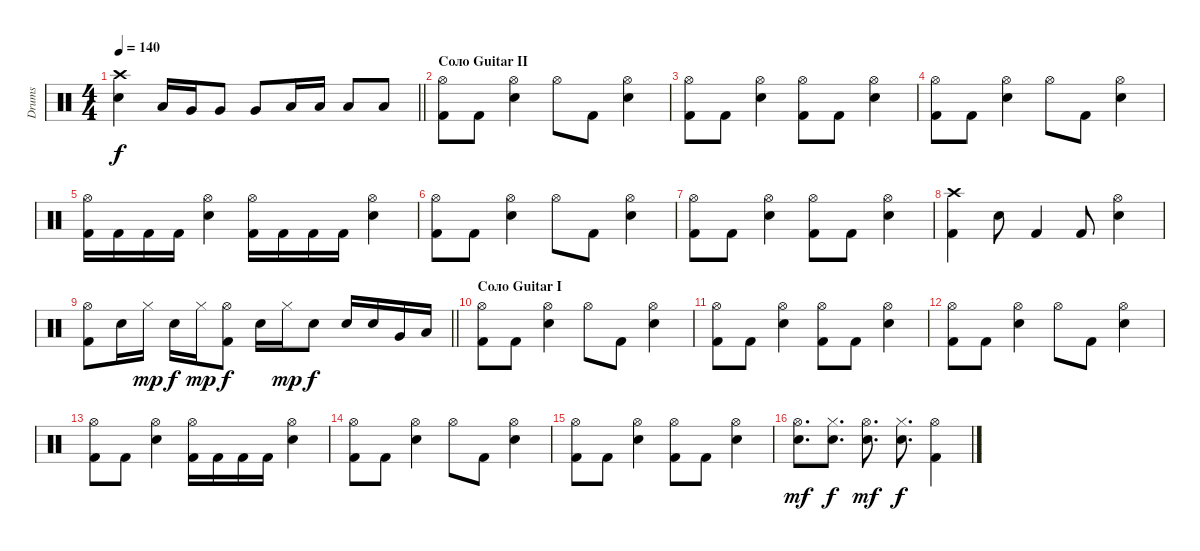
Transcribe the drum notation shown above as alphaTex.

\track ("Drums" "Drums") {instrument percussion}
\staff {score}
\articulation defaults
\ts (4 4)
\tempo 140
\clef neutral
\barLineRight lightlight
\ks c
("Crash high (hit)" "Snare (hit) 2").4{dy f} "Low Tom (hit)".16 "Very Low Tom (hit)".16 "Very Low Tom (hit)".8 "Very Low Tom (hit)".8 "Low Floor Tom (hit)".16 "Low Floor Tom (hit)".16 "Low Floor Tom (hit)".8 "Low Floor Tom (hit)".8 |
\section ("" "Соло Guitar II")
("Hi-Hat (open)" "Kick (hit) 2").8 "Kick (hit) 2".8 ("Hi-Hat (open)" "Snare (hit) 2").4 "Hi-Hat (open)".8 "Kick (hit) 2".8 ("Hi-Hat (open)" "Snare (hit) 2").4 |
("Hi-Hat (open)" "Kick (hit) 2").8 "Kick (hit) 2".8 ("Hi-Hat (open)" "Snare (hit) 2").4 ("Hi-Hat (open)" "Kick (hit) 2").8 "Kick (hit) 2".8 ("Hi-Hat (open)" "Snare (hit) 2").4 |
("Hi-Hat (open)" "Kick (hit) 2").8 "Kick (hit) 2".8 ("Hi-Hat (open)" "Snare (hit) 2").4 "Hi-Hat (open)".8 "Kick (hit) 2".8 ("Hi-Hat (open)" "Snare (hit) 2").4 |
("Hi-Hat (open)" "Kick (hit) 2").16 "Kick (hit) 2".16 "Kick (hit) 2".16 "Kick (hit) 2".16 ("Hi-Hat (open)" "Snare (hit) 2").4 ("Hi-Hat (open)" "Kick (hit) 2").16 "Kick (hit) 2".16 "Kick (hit) 2".16 "Kick (hit) 2".16 ("Hi-Hat (open)" "Snare (hit) 2").4 |
("Hi-Hat (open)" "Kick (hit) 2").8 "Kick (hit) 2".8 ("Hi-Hat (open)" "Snare (hit) 2").4 "Hi-Hat (open)".8 "Kick (hit) 2".8 ("Hi-Hat (open)" "Snare (hit) 2").4 |
("Hi-Hat (open)" "Kick (hit) 2").8 "Kick (hit) 2".8 ("Hi-Hat (open)" "Snare (hit) 2").4 ("Hi-Hat (open)" "Kick (hit) 2").8 "Kick (hit) 2".8 ("Hi-Hat (open)" "Snare (hit) 2").4 |
("Crash high (hit)" "Kick (hit) 2").4 "Snare (hit) 2".8 "Kick (hit) 2".4 "Kick (hit) 2".8 ("Hi-Hat (open)" "Snare (hit) 2").4 |
\barLineRight lightlight
("Hi-Hat (open)" "Kick (hit) 2").8 "Snare (hit) 2".16 "Hi-Hat (closed)".16{dy mp} "Snare (hit) 2".16{dy f} "Hi-Hat (closed)".16{dy mp} ("Hi-Hat (open)" "Kick (hit) 2").8{dy f} "Snare (hit) 2".16 "Hi-Hat (closed)".16{dy mp} "Snare (hit) 2".8{dy f} "Snare (hit) 2".16 "Snare (hit) 2".16 "Very Low Tom (hit)".16 "Low Floor Tom (hit)".16 |
\section ("" "Соло Guitar I")
("Hi-Hat (open)" "Kick (hit) 2").8 "Kick (hit) 2".8 ("Hi-Hat (open)" "Snare (hit) 2").4 "Hi-Hat (open)".8 "Kick (hit) 2".8 ("Hi-Hat (open)" "Snare (hit) 2").4 |
("Hi-Hat (open)" "Kick (hit) 2").8 "Kick (hit) 2".8 ("Hi-Hat (open)" "Snare (hit) 2").4 ("Hi-Hat (open)" "Kick (hit) 2").8 "Kick (hit) 2".8 ("Hi-Hat (open)" "Snare (hit) 2").4 |
("Hi-Hat (open)" "Kick (hit) 2").8 "Kick (hit) 2".8 ("Hi-Hat (open)" "Snare (hit) 2").4 "Hi-Hat (open)".8 "Kick (hit) 2".8 ("Hi-Hat (open)" "Snare (hit) 2").4 |
("Hi-Hat (open)" "Kick (hit) 2").8 "Kick (hit) 2".8 ("Hi-Hat (open)" "Snare (hit) 2").4 ("Hi-Hat (open)" "Kick (hit) 2").16 "Kick (hit) 2".16 "Kick (hit) 2".16 "Kick (hit) 2".16 ("Hi-Hat (open)" "Snare (hit) 2").4 |
("Hi-Hat (open)" "Kick (hit) 2").8 "Kick (hit) 2".8 ("Hi-Hat (open)" "Snare (hit) 2").4 "Hi-Hat (open)".8 "Kick (hit) 2".8 ("Hi-Hat (open)" "Snare (hit) 2").4 |
("Hi-Hat (open)" "Kick (hit) 2").8 "Kick (hit) 2".8 ("Hi-Hat (open)" "Snare (hit) 2").4 ("Hi-Hat (open)" "Kick (hit) 2").8 "Kick (hit) 2".8 ("Hi-Hat (open)" "Snare (hit) 2").4 |
("Hi-Hat (open)" "Snare (hit) 2").8{d dy mf} ("Hi-Hat (closed)" "Snare (hit) 2").8{d dy f} ("Hi-Hat (open)" "Snare (hit) 2").8{d dy mf} ("Hi-Hat (closed)" "Snare (hit) 2").8{d dy f} ("Hi-Hat (open)" "Kick (hit) 2").4
